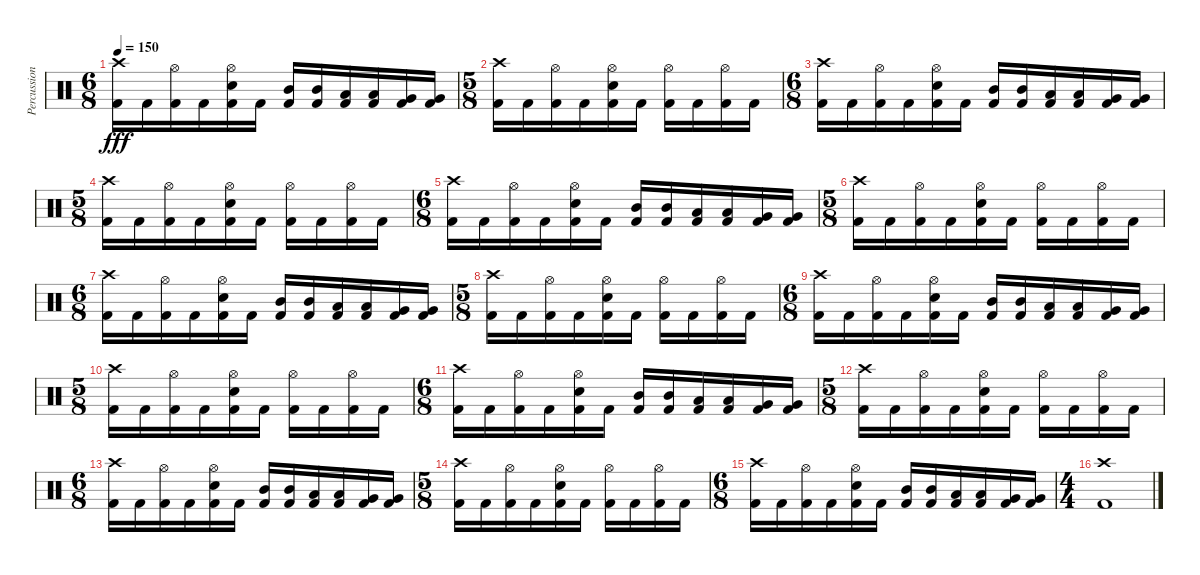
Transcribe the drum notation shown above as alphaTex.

\track ("Percussion" "Percussion") {instrument percussion}
\staff {score}
\articulation defaults
\ts (6 8)
\tempo 150
\clef neutral
\ks c
("Crash high (hit)" "Kick (hit) 2").16{dy fff} "Kick (hit) 2".16 ("Hi-Hat (open)" "Kick (hit) 2").16 "Kick (hit) 2".16 ("Snare (hit) 2" "Hi-Hat (open)" "Kick (hit) 2").16 "Kick (hit) 2".16 ("Mid Tom (hit)" "Kick (hit) 2").16 ("Mid Tom (hit)" "Kick (hit) 2").16 ("Low Tom (hit)" "Kick (hit) 2").16 ("Low Tom (hit)" "Kick (hit) 2").16 ("Very Low Tom (hit)" "Kick (hit) 2").16 ("Very Low Tom (hit)" "Kick (hit) 2").16 |
\ts (5 8)
("Crash high (hit)" "Kick (hit) 2").16 "Kick (hit) 2".16 ("Hi-Hat (open)" "Kick (hit) 2").16 "Kick (hit) 2".16 ("Snare (hit) 2" "Hi-Hat (open)" "Kick (hit) 2").16 "Kick (hit) 2".16 ("Hi-Hat (open)" "Kick (hit) 2").16 "Kick (hit) 2".16 ("Hi-Hat (open)" "Kick (hit) 2").16 "Kick (hit) 2".16 |
\ts (6 8)
("Crash high (hit)" "Kick (hit) 2").16 "Kick (hit) 2".16 ("Hi-Hat (open)" "Kick (hit) 2").16 "Kick (hit) 2".16 ("Snare (hit) 2" "Hi-Hat (open)" "Kick (hit) 2").16 "Kick (hit) 2".16 ("Mid Tom (hit)" "Kick (hit) 2").16 ("Mid Tom (hit)" "Kick (hit) 2").16 ("Low Tom (hit)" "Kick (hit) 2").16 ("Low Tom (hit)" "Kick (hit) 2").16 ("Very Low Tom (hit)" "Kick (hit) 2").16 ("Very Low Tom (hit)" "Kick (hit) 2").16 |
\ts (5 8)
("Crash high (hit)" "Kick (hit) 2").16 "Kick (hit) 2".16 ("Hi-Hat (open)" "Kick (hit) 2").16 "Kick (hit) 2".16 ("Snare (hit) 2" "Hi-Hat (open)" "Kick (hit) 2").16 "Kick (hit) 2".16 ("Hi-Hat (open)" "Kick (hit) 2").16 "Kick (hit) 2".16 ("Hi-Hat (open)" "Kick (hit) 2").16 "Kick (hit) 2".16 |
\ts (6 8)
("Crash high (hit)" "Kick (hit) 2").16 "Kick (hit) 2".16 ("Hi-Hat (open)" "Kick (hit) 2").16 "Kick (hit) 2".16 ("Snare (hit) 2" "Hi-Hat (open)" "Kick (hit) 2").16 "Kick (hit) 2".16 ("Mid Tom (hit)" "Kick (hit) 2").16 ("Mid Tom (hit)" "Kick (hit) 2").16 ("Low Tom (hit)" "Kick (hit) 2").16 ("Low Tom (hit)" "Kick (hit) 2").16 ("Very Low Tom (hit)" "Kick (hit) 2").16 ("Very Low Tom (hit)" "Kick (hit) 2").16 |
\ts (5 8)
("Crash high (hit)" "Kick (hit) 2").16 "Kick (hit) 2".16 ("Hi-Hat (open)" "Kick (hit) 2").16 "Kick (hit) 2".16 ("Snare (hit) 2" "Hi-Hat (open)" "Kick (hit) 2").16 "Kick (hit) 2".16 ("Hi-Hat (open)" "Kick (hit) 2").16 "Kick (hit) 2".16 ("Hi-Hat (open)" "Kick (hit) 2").16 "Kick (hit) 2".16 |
\ts (6 8)
("Crash high (hit)" "Kick (hit) 2").16 "Kick (hit) 2".16 ("Hi-Hat (open)" "Kick (hit) 2").16 "Kick (hit) 2".16 ("Snare (hit) 2" "Hi-Hat (open)" "Kick (hit) 2").16 "Kick (hit) 2".16 ("Mid Tom (hit)" "Kick (hit) 2").16 ("Mid Tom (hit)" "Kick (hit) 2").16 ("Low Tom (hit)" "Kick (hit) 2").16 ("Low Tom (hit)" "Kick (hit) 2").16 ("Very Low Tom (hit)" "Kick (hit) 2").16 ("Very Low Tom (hit)" "Kick (hit) 2").16 |
\ts (5 8)
("Crash high (hit)" "Kick (hit) 2").16 "Kick (hit) 2".16 ("Hi-Hat (open)" "Kick (hit) 2").16 "Kick (hit) 2".16 ("Snare (hit) 2" "Hi-Hat (open)" "Kick (hit) 2").16 "Kick (hit) 2".16 ("Hi-Hat (open)" "Kick (hit) 2").16 "Kick (hit) 2".16 ("Hi-Hat (open)" "Kick (hit) 2").16 "Kick (hit) 2".16 |
\ts (6 8)
("Crash high (hit)" "Kick (hit) 2").16 "Kick (hit) 2".16 ("Hi-Hat (open)" "Kick (hit) 2").16 "Kick (hit) 2".16 ("Snare (hit) 2" "Hi-Hat (open)" "Kick (hit) 2").16 "Kick (hit) 2".16 ("Mid Tom (hit)" "Kick (hit) 2").16 ("Mid Tom (hit)" "Kick (hit) 2").16 ("Low Tom (hit)" "Kick (hit) 2").16 ("Low Tom (hit)" "Kick (hit) 2").16 ("Very Low Tom (hit)" "Kick (hit) 2").16 ("Very Low Tom (hit)" "Kick (hit) 2").16 |
\ts (5 8)
("Crash high (hit)" "Kick (hit) 2").16 "Kick (hit) 2".16 ("Hi-Hat (open)" "Kick (hit) 2").16 "Kick (hit) 2".16 ("Snare (hit) 2" "Hi-Hat (open)" "Kick (hit) 2").16 "Kick (hit) 2".16 ("Hi-Hat (open)" "Kick (hit) 2").16 "Kick (hit) 2".16 ("Hi-Hat (open)" "Kick (hit) 2").16 "Kick (hit) 2".16 |
\ts (6 8)
("Crash high (hit)" "Kick (hit) 2").16 "Kick (hit) 2".16 ("Hi-Hat (open)" "Kick (hit) 2").16 "Kick (hit) 2".16 ("Snare (hit) 2" "Hi-Hat (open)" "Kick (hit) 2").16 "Kick (hit) 2".16 ("Mid Tom (hit)" "Kick (hit) 2").16 ("Mid Tom (hit)" "Kick (hit) 2").16 ("Low Tom (hit)" "Kick (hit) 2").16 ("Low Tom (hit)" "Kick (hit) 2").16 ("Very Low Tom (hit)" "Kick (hit) 2").16 ("Very Low Tom (hit)" "Kick (hit) 2").16 |
\ts (5 8)
("Crash high (hit)" "Kick (hit) 2").16 "Kick (hit) 2".16 ("Hi-Hat (open)" "Kick (hit) 2").16 "Kick (hit) 2".16 ("Snare (hit) 2" "Hi-Hat (open)" "Kick (hit) 2").16 "Kick (hit) 2".16 ("Hi-Hat (open)" "Kick (hit) 2").16 "Kick (hit) 2".16 ("Hi-Hat (open)" "Kick (hit) 2").16 "Kick (hit) 2".16 |
\ts (6 8)
("Crash high (hit)" "Kick (hit) 2").16 "Kick (hit) 2".16 ("Hi-Hat (open)" "Kick (hit) 2").16 "Kick (hit) 2".16 ("Snare (hit) 2" "Hi-Hat (open)" "Kick (hit) 2").16 "Kick (hit) 2".16 ("Mid Tom (hit)" "Kick (hit) 2").16 ("Mid Tom (hit)" "Kick (hit) 2").16 ("Low Tom (hit)" "Kick (hit) 2").16 ("Low Tom (hit)" "Kick (hit) 2").16 ("Very Low Tom (hit)" "Kick (hit) 2").16 ("Very Low Tom (hit)" "Kick (hit) 2").16 |
\ts (5 8)
("Crash high (hit)" "Kick (hit) 2").16 "Kick (hit) 2".16 ("Hi-Hat (open)" "Kick (hit) 2").16 "Kick (hit) 2".16 ("Snare (hit) 2" "Hi-Hat (open)" "Kick (hit) 2").16 "Kick (hit) 2".16 ("Hi-Hat (open)" "Kick (hit) 2").16 "Kick (hit) 2".16 ("Hi-Hat (open)" "Kick (hit) 2").16 "Kick (hit) 2".16 |
\ts (6 8)
("Crash high (hit)" "Kick (hit) 2").16 "Kick (hit) 2".16 ("Hi-Hat (open)" "Kick (hit) 2").16 "Kick (hit) 2".16 ("Snare (hit) 2" "Hi-Hat (open)" "Kick (hit) 2").16 "Kick (hit) 2".16 ("Mid Tom (hit)" "Kick (hit) 2").16 ("Mid Tom (hit)" "Kick (hit) 2").16 ("Low Tom (hit)" "Kick (hit) 2").16 ("Low Tom (hit)" "Kick (hit) 2").16 ("Very Low Tom (hit)" "Kick (hit) 2").16 ("Very Low Tom (hit)" "Kick (hit) 2").16 |
\ts (4 4)
("Crash high (hit)" "Kick (hit) 2").1
